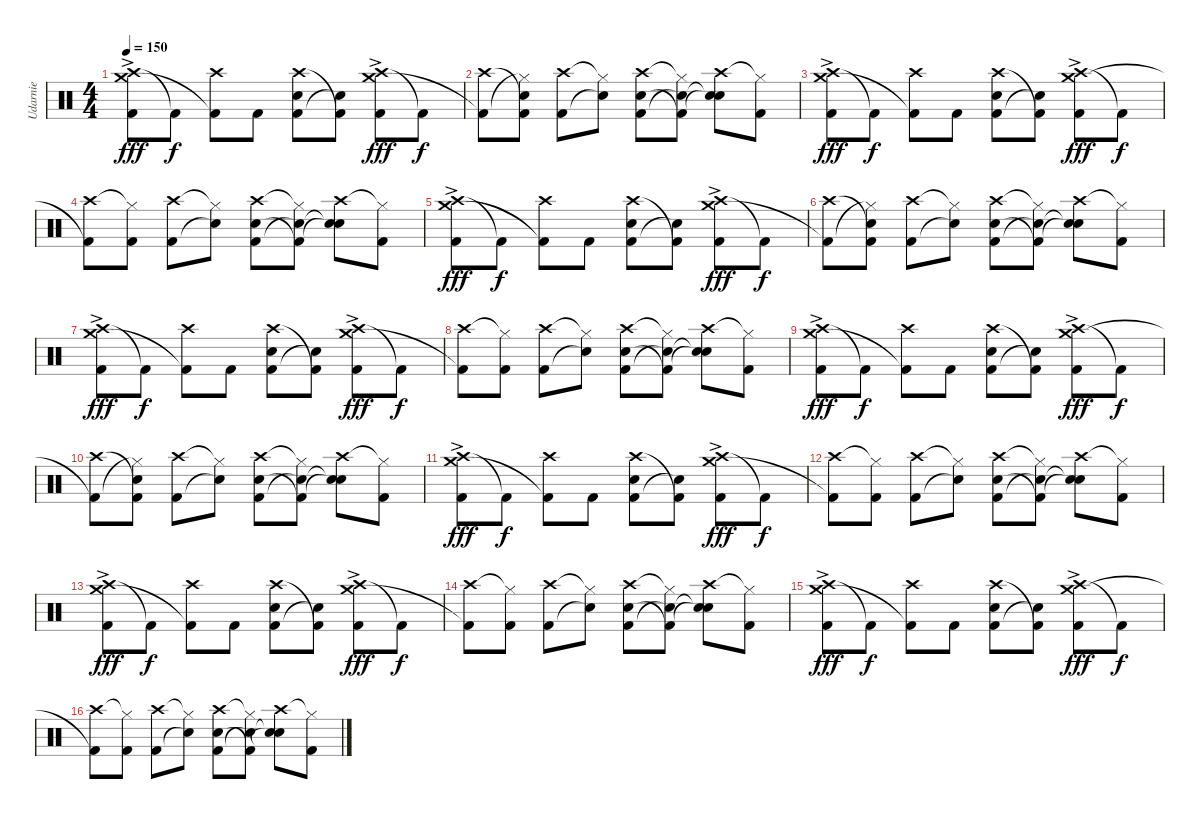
\track ("Udarnie" "Udarnie") {instrument percussion}
\staff {score}
\articulation defaults
\ts (4 4)
\tempo 150
\clef neutral
\ks c
("Crash high (hit)" "Crash medium (hit)"{ac} "Kick (hit) 2").8{dy fff} "Kick (hit) 2"{t}.8{dy f} ("Crash high (hit)" "Kick (hit) 2"{t}).8 "Kick (hit) 2".8 ("Crash high (hit)" "Kick (hit) 2" "Snare (hit) 2").8 ("Kick (hit) 2"{t} "Snare (hit) 2"{t}).8 ("Crash high (hit)" "Crash medium (hit)"{ac} "Kick (hit) 2").8{dy fff} "Kick (hit) 2"{t}.8{dy f} |
("Crash high (hit)" "Kick (hit) 2"{t}).8 ("Snare (hit)"{t} "Hi-Hat (closed)"{t} "Kick (hit) 2").8 ("Crash high (hit)" "Kick (hit) 2").8 ("Hi-Hat (closed)"{t} "Snare (hit)"{t}).8 ("Crash high (hit)" "Snare (hit) 2" "Kick (hit) 2").8 ("Hi-Hat (closed)"{t} "Kick (hit) 2"{t} "Snare (hit) 2"{t}).8 ("Crash high (hit)" "Snare (hit)"{t} "Snare (hit)"{t}).8 ("Hi-Hat (closed)"{t} "Kick (hit) 2").8 |
("Crash high (hit)" "Crash medium (hit)"{ac} "Kick (hit) 2").8{dy fff} "Kick (hit) 2"{t}.8{dy f} ("Crash high (hit)" "Kick (hit) 2"{t}).8 "Kick (hit) 2".8 ("Crash high (hit)" "Kick (hit) 2" "Snare (hit) 2").8 ("Kick (hit) 2"{t} "Snare (hit) 2"{t}).8 ("Crash high (hit)" "Crash medium (hit)"{ac} "Kick (hit) 2").8{dy fff} "Kick (hit) 2"{t}.8{dy f} |
("Crash high (hit)" "Kick (hit) 2"{t}).8 ("Hi-Hat (closed)"{t} "Kick (hit) 2").8 ("Crash high (hit)" "Kick (hit) 2").8 ("Hi-Hat (closed)"{t} "Snare (hit)"{t}).8 ("Crash high (hit)" "Snare (hit) 2" "Kick (hit) 2").8 ("Hi-Hat (closed)"{t} "Kick (hit) 2"{t} "Snare (hit) 2"{t}).8 ("Crash high (hit)" "Snare (hit)"{t} "Snare (hit)"{t}).8 ("Hi-Hat (closed)"{t} "Kick (hit) 2").8 |
("Crash high (hit)" "Crash medium (hit)"{ac} "Kick (hit) 2").8{dy fff} "Kick (hit) 2"{t}.8{dy f} ("Crash high (hit)" "Kick (hit) 2"{t}).8 "Kick (hit) 2".8 ("Crash high (hit)" "Kick (hit) 2" "Snare (hit) 2").8 ("Kick (hit) 2"{t} "Snare (hit) 2"{t}).8 ("Crash high (hit)" "Crash medium (hit)"{ac} "Kick (hit) 2").8{dy fff} "Kick (hit) 2"{t}.8{dy f} |
("Crash high (hit)" "Kick (hit) 2"{t}).8 ("Snare (hit)"{t} "Hi-Hat (closed)"{t} "Kick (hit) 2").8 ("Crash high (hit)" "Kick (hit) 2").8 ("Hi-Hat (closed)"{t} "Snare (hit)"{t}).8 ("Crash high (hit)" "Snare (hit) 2" "Kick (hit) 2").8 ("Hi-Hat (closed)"{t} "Kick (hit) 2"{t} "Snare (hit) 2"{t}).8 ("Crash high (hit)" "Snare (hit)"{t} "Snare (hit)"{t}).8 ("Hi-Hat (closed)"{t} "Kick (hit) 2").8 |
("Crash high (hit)" "Crash medium (hit)"{ac} "Kick (hit) 2").8{dy fff} "Kick (hit) 2"{t}.8{dy f} ("Crash high (hit)" "Kick (hit) 2"{t}).8 "Kick (hit) 2".8 ("Crash high (hit)" "Kick (hit) 2" "Snare (hit) 2").8 ("Kick (hit) 2"{t} "Snare (hit) 2"{t}).8 ("Crash high (hit)" "Crash medium (hit)"{ac} "Kick (hit) 2").8{dy fff} "Kick (hit) 2"{t}.8{dy f} |
("Crash high (hit)" "Kick (hit) 2"{t}).8 ("Hi-Hat (closed)"{t} "Kick (hit) 2").8 ("Crash high (hit)" "Kick (hit) 2").8 ("Hi-Hat (closed)"{t} "Snare (hit)"{t}).8 ("Crash high (hit)" "Snare (hit) 2" "Kick (hit) 2").8 ("Hi-Hat (closed)"{t} "Kick (hit) 2"{t} "Snare (hit) 2"{t}).8 ("Crash high (hit)" "Snare (hit)"{t} "Snare (hit)"{t}).8 ("Hi-Hat (closed)"{t} "Kick (hit) 2").8 |
("Crash high (hit)" "Crash medium (hit)"{ac} "Kick (hit) 2").8{dy fff} "Kick (hit) 2"{t}.8{dy f} ("Crash high (hit)" "Kick (hit) 2"{t}).8 "Kick (hit) 2".8 ("Crash high (hit)" "Kick (hit) 2" "Snare (hit) 2").8 ("Kick (hit) 2"{t} "Snare (hit) 2"{t}).8 ("Crash high (hit)" "Crash medium (hit)"{ac} "Kick (hit) 2").8{dy fff} "Kick (hit) 2"{t}.8{dy f} |
("Crash high (hit)" "Kick (hit) 2"{t}).8 ("Snare (hit)"{t} "Hi-Hat (closed)"{t} "Kick (hit) 2").8 ("Crash high (hit)" "Kick (hit) 2").8 ("Hi-Hat (closed)"{t} "Snare (hit)"{t}).8 ("Crash high (hit)" "Snare (hit) 2" "Kick (hit) 2").8 ("Hi-Hat (closed)"{t} "Kick (hit) 2"{t} "Snare (hit) 2"{t}).8 ("Crash high (hit)" "Snare (hit)"{t} "Snare (hit)"{t}).8 ("Hi-Hat (closed)"{t} "Kick (hit) 2").8 |
("Crash high (hit)" "Crash medium (hit)"{ac} "Kick (hit) 2").8{dy fff} "Kick (hit) 2"{t}.8{dy f} ("Crash high (hit)" "Kick (hit) 2"{t}).8 "Kick (hit) 2".8 ("Crash high (hit)" "Kick (hit) 2" "Snare (hit) 2").8 ("Kick (hit) 2"{t} "Snare (hit) 2"{t}).8 ("Crash high (hit)" "Crash medium (hit)"{ac} "Kick (hit) 2").8{dy fff} "Kick (hit) 2"{t}.8{dy f} |
("Crash high (hit)" "Kick (hit) 2"{t}).8 ("Hi-Hat (closed)"{t} "Kick (hit) 2").8 ("Crash high (hit)" "Kick (hit) 2").8 ("Hi-Hat (closed)"{t} "Snare (hit)"{t}).8 ("Crash high (hit)" "Snare (hit) 2" "Kick (hit) 2").8 ("Hi-Hat (closed)"{t} "Kick (hit) 2"{t} "Snare (hit) 2"{t}).8 ("Crash high (hit)" "Snare (hit)"{t} "Snare (hit)"{t}).8 ("Hi-Hat (closed)"{t} "Kick (hit) 2").8 |
("Crash high (hit)" "Crash medium (hit)"{ac} "Kick (hit) 2").8{dy fff} "Kick (hit) 2"{t}.8{dy f} ("Crash high (hit)" "Kick (hit) 2"{t}).8 "Kick (hit) 2".8 ("Crash high (hit)" "Kick (hit) 2" "Snare (hit) 2").8 ("Kick (hit) 2"{t} "Snare (hit) 2"{t}).8 ("Crash high (hit)" "Crash medium (hit)"{ac} "Kick (hit) 2").8{dy fff} "Kick (hit) 2"{t}.8{dy f} |
("Crash high (hit)" "Kick (hit) 2"{t}).8 ("Hi-Hat (closed)"{t} "Kick (hit) 2").8 ("Crash high (hit)" "Kick (hit) 2").8 ("Hi-Hat (closed)"{t} "Snare (hit)"{t}).8 ("Crash high (hit)" "Snare (hit) 2" "Kick (hit) 2").8 ("Hi-Hat (closed)"{t} "Kick (hit) 2"{t} "Snare (hit) 2"{t}).8 ("Crash high (hit)" "Snare (hit)"{t} "Snare (hit)"{t}).8 ("Hi-Hat (closed)"{t} "Kick (hit) 2").8 |
("Crash high (hit)" "Crash medium (hit)"{ac} "Kick (hit) 2").8{dy fff} "Kick (hit) 2"{t}.8{dy f} ("Crash high (hit)" "Kick (hit) 2"{t}).8 "Kick (hit) 2".8 ("Crash high (hit)" "Kick (hit) 2" "Snare (hit) 2").8 ("Kick (hit) 2"{t} "Snare (hit) 2"{t}).8 ("Crash high (hit)" "Crash medium (hit)"{ac} "Kick (hit) 2").8{dy fff} "Kick (hit) 2"{t}.8{dy f} |
("Crash high (hit)" "Kick (hit) 2"{t}).8 ("Hi-Hat (closed)"{t} "Kick (hit) 2").8 ("Crash high (hit)" "Kick (hit) 2").8 ("Hi-Hat (closed)"{t} "Snare (hit)"{t}).8 ("Crash high (hit)" "Snare (hit) 2" "Kick (hit) 2").8 ("Hi-Hat (closed)"{t} "Kick (hit) 2"{t} "Snare (hit) 2"{t}).8 ("Crash high (hit)" "Snare (hit)"{t} "Snare (hit)"{t}).8 ("Hi-Hat (closed)"{t} "Kick (hit) 2").8
